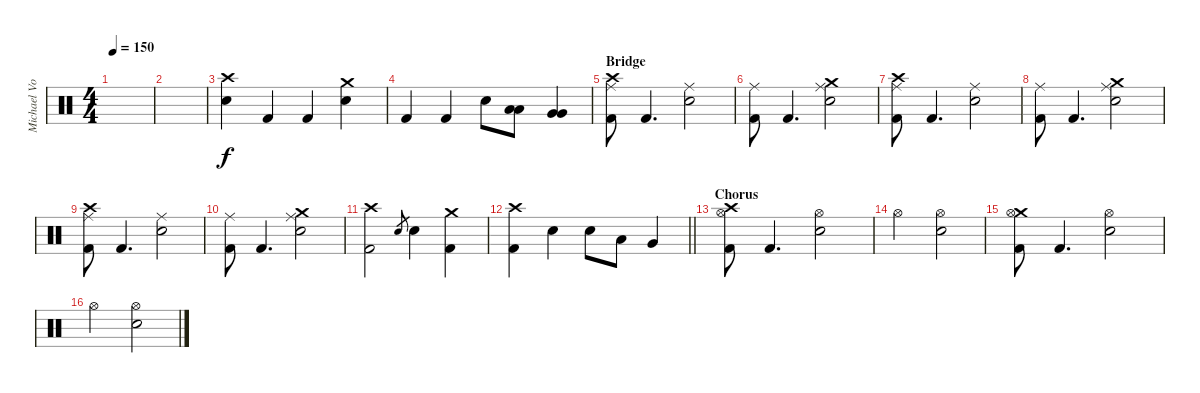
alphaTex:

\track ("Michael Von Knorring" "Michael Vo") {instrument percussion}
\staff {score}
\articulation defaults
\ts (4 4)
\tempo 150
\clef neutral
\ks c
|
|
("Crash high (hit)" "Snare (hit) 2").4 "Kick (hit) 2".4 "Kick (hit) 2".4 ("Crash medium (hit)" "Snare (hit) 2").4 |
"Kick (hit) 2".4 "Kick (hit) 2".4 "Snare (hit) 2".8 ("Low Tom (hit)" "Low Tom (hit)").8 ("Very Low Tom (hit)" "Very Low Tom (hit)").4 |
\section ("" "Bridge")
("Crash high (hit)" "Ride (middle)" "Kick (hit) 2").8 "Kick (hit) 2".4{d} ("Ride (middle)" "Snare (hit) 2").2 |
("Ride (middle)" "Kick (hit) 2").8 "Kick (hit) 2".4{d} ("Crash medium (hit)" "Ride (middle)" "Snare (hit) 2").2 |
("Crash high (hit)" "Ride (middle)" "Kick (hit) 2").8 "Kick (hit) 2".4{d} ("Ride (middle)" "Snare (hit) 2").2 |
("Ride (middle)" "Kick (hit) 2").8 "Kick (hit) 2".4{d} ("Crash medium (hit)" "Ride (middle)" "Snare (hit) 2").2 |
("Crash high (hit)" "Ride (middle)" "Kick (hit) 2").8 "Kick (hit) 2".4{d} ("Ride (middle)" "Snare (hit) 2").2 |
("Ride (middle)" "Kick (hit) 2").8 "Kick (hit) 2".4{d} ("Crash medium (hit)" "Ride (middle)" "Snare (hit) 2").2 |
("Crash high (hit)" "Kick (hit) 2").2 "Snare (hit) 2".8{gr} "Snare (hit) 2".4 ("Crash medium (hit)" "Kick (hit) 2").4 |
\barLineRight lightlight
("Crash high (hit)" "Kick (hit) 2").4 "Snare (hit) 2".4 "Snare (hit) 2".8 "Low Tom (hit)".8 "Very Low Tom (hit)".4 |
\section ("" "Chorus")
("Crash high (hit)" "Hi-Hat (open)" "Kick (hit) 2").8 "Kick (hit) 2".4{d} ("Hi-Hat (open)" "Snare (hit) 2").2 |
"Hi-Hat (open)".2 ("Hi-Hat (open)" "Snare (hit) 2").2 |
("Crash medium (hit)" "Hi-Hat (open)" "Kick (hit) 2").8 "Kick (hit) 2".4{d} ("Hi-Hat (open)" "Snare (hit) 2").2 |
"Hi-Hat (open)".2 ("Hi-Hat (open)" "Snare (hit) 2").2
